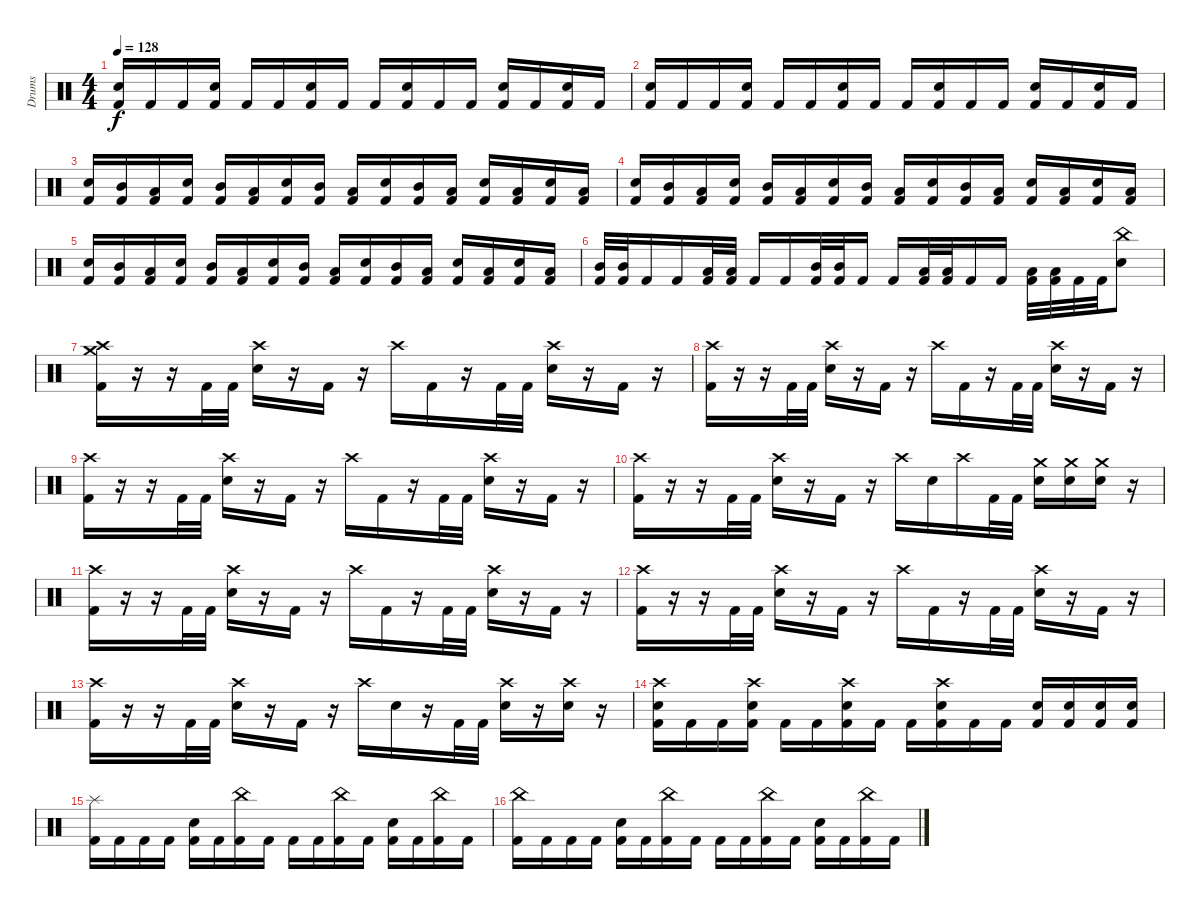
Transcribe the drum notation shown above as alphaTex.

\track ("Drums" "Drums") {instrument percussion}
\staff {score}
\articulation defaults
\ts (4 4)
\tempo 128
\clef neutral
\ks c
("Electric Snare (hit)" "Kick (hit) 2").16{dy f} "Kick (hit) 2".16 "Kick (hit) 2".16 ("Electric Snare (hit)" "Kick (hit) 2").16 "Kick (hit) 2".16 "Kick (hit) 2".16 ("Electric Snare (hit)" "Kick (hit) 2").16 "Kick (hit) 2".16 "Kick (hit) 2".16 ("Electric Snare (hit)" "Kick (hit) 2").16 "Kick (hit) 2".16 "Kick (hit) 2".16 ("Electric Snare (hit)" "Kick (hit) 2").16 "Kick (hit) 2".16 ("Electric Snare (hit)" "Kick (hit) 2").16 "Kick (hit) 2".16 |
("Electric Snare (hit)" "Kick (hit) 2").16 "Kick (hit) 2".16 "Kick (hit) 2".16 ("Electric Snare (hit)" "Kick (hit) 2").16 "Kick (hit) 2".16 "Kick (hit) 2".16 ("Electric Snare (hit)" "Kick (hit) 2").16 "Kick (hit) 2".16 "Kick (hit) 2".16 ("Electric Snare (hit)" "Kick (hit) 2").16 "Kick (hit) 2".16 "Kick (hit) 2".16 ("Electric Snare (hit)" "Kick (hit) 2").16 "Kick (hit) 2".16 ("Electric Snare (hit)" "Kick (hit) 2").16 "Kick (hit) 2".16 |
("Electric Snare (hit)" "Kick (hit) 2").16 ("Mid Tom (hit)" "Kick (hit) 2").16 ("Low Tom (hit)" "Kick (hit) 2").16 ("Electric Snare (hit)" "Kick (hit) 2").16 ("Mid Tom (hit)" "Kick (hit) 2").16 ("Low Tom (hit)" "Kick (hit) 2").16 ("Electric Snare (hit)" "Kick (hit) 2").16 ("Mid Tom (hit)" "Kick (hit) 2").16 ("Low Tom (hit)" "Kick (hit) 2").16 ("Electric Snare (hit)" "Kick (hit) 2").16 ("Mid Tom (hit)" "Kick (hit) 2").16 ("Low Tom (hit)" "Kick (hit) 2").16 ("Electric Snare (hit)" "Kick (hit) 2").16 ("Low Tom (hit)" "Kick (hit) 2").16 ("Electric Snare (hit)" "Kick (hit) 2").16 ("Low Tom (hit)" "Kick (hit) 2").16 |
("Electric Snare (hit)" "Kick (hit) 2").16 ("Mid Tom (hit)" "Kick (hit) 2").16 ("Low Tom (hit)" "Kick (hit) 2").16 ("Electric Snare (hit)" "Kick (hit) 2").16 ("Mid Tom (hit)" "Kick (hit) 2").16 ("Low Tom (hit)" "Kick (hit) 2").16 ("Electric Snare (hit)" "Kick (hit) 2").16 ("Mid Tom (hit)" "Kick (hit) 2").16 ("Low Tom (hit)" "Kick (hit) 2").16 ("Electric Snare (hit)" "Kick (hit) 2").16 ("Mid Tom (hit)" "Kick (hit) 2").16 ("Low Tom (hit)" "Kick (hit) 2").16 ("Electric Snare (hit)" "Kick (hit) 2").16 ("Low Tom (hit)" "Kick (hit) 2").16 ("Electric Snare (hit)" "Kick (hit) 2").16 ("Low Tom (hit)" "Kick (hit) 2").16 |
("Electric Snare (hit)" "Kick (hit) 2").16 ("Mid Tom (hit)" "Kick (hit) 2").16 ("Low Tom (hit)" "Kick (hit) 2").16 ("Electric Snare (hit)" "Kick (hit) 2").16 ("Mid Tom (hit)" "Kick (hit) 2").16 ("Low Tom (hit)" "Kick (hit) 2").16 ("Electric Snare (hit)" "Kick (hit) 2").16 ("Mid Tom (hit)" "Kick (hit) 2").16 ("Low Tom (hit)" "Kick (hit) 2").16 ("Electric Snare (hit)" "Kick (hit) 2").16 ("Mid Tom (hit)" "Kick (hit) 2").16 ("Low Tom (hit)" "Kick (hit) 2").16 ("Electric Snare (hit)" "Kick (hit) 2").16 ("Low Tom (hit)" "Kick (hit) 2").16 ("Electric Snare (hit)" "Kick (hit) 2").16 ("Low Tom (hit)" "Kick (hit) 2").16 |
("Mid Tom (hit)" "Kick (hit) 2").32 ("Mid Tom (hit)" "Kick (hit) 2").32 "Kick (hit) 2".16 "Kick (hit) 2".16 ("Low Tom (hit)" "Kick (hit) 2").32 ("Low Tom (hit)" "Kick (hit) 2").32 "Kick (hit) 2".16 "Kick (hit) 2".16 ("Mid Tom (hit)" "Kick (hit) 2").32 ("Mid Tom (hit)" "Kick (hit) 2").32 "Kick (hit) 2".16 "Kick (hit) 2".16 ("Low Tom (hit)" "Kick (hit) 2").32 ("Low Tom (hit)" "Kick (hit) 2").32 "Kick (hit) 2".16 "Kick (hit) 2".16 ("Low Tom (hit)" "Kick (hit) 2").32 ("Low Tom (hit)" "Kick (hit) 2").32 "Kick (hit) 2".32 "Kick (hit) 2".32 ("China (hit)" "Electric Snare (hit)").8 |
("Crash high (hit)" "Crash medium (hit)" "Kick (hit) 2").16 r.16 r.16 "Kick (hit) 2".32 "Kick (hit) 2".32 ("Crash high (hit)" "Electric Snare (hit)").16 r.16 "Kick (hit) 2".16 r.16 "Crash high (hit)".16 "Kick (hit) 2".16 r.16 "Kick (hit) 2".32 "Kick (hit) 2".32 ("Crash high (hit)" "Electric Snare (hit)").16 r.16 "Kick (hit) 2".16 r.16 |
("Crash high (hit)" "Kick (hit) 2").16 r.16 r.16 "Kick (hit) 2".32 "Kick (hit) 2".32 ("Crash high (hit)" "Electric Snare (hit)").16 r.16 "Kick (hit) 2".16 r.16 "Crash high (hit)".16 "Kick (hit) 2".16 r.16 "Kick (hit) 2".32 "Kick (hit) 2".32 ("Crash high (hit)" "Electric Snare (hit)").16 r.16 "Kick (hit) 2".16 r.16 |
("Crash high (hit)" "Kick (hit) 2").16 r.16 r.16 "Kick (hit) 2".32 "Kick (hit) 2".32 ("Crash high (hit)" "Electric Snare (hit)").16 r.16 "Kick (hit) 2".16 r.16 "Crash high (hit)".16 "Kick (hit) 2".16 r.16 "Kick (hit) 2".32 "Kick (hit) 2".32 ("Crash high (hit)" "Electric Snare (hit)").16 r.16 "Kick (hit) 2".16 r.16 |
("Crash high (hit)" "Kick (hit) 2").16 r.16 r.16 "Kick (hit) 2".32 "Kick (hit) 2".32 ("Crash high (hit)" "Electric Snare (hit)").16 r.16 "Kick (hit) 2".16 r.16 "Crash high (hit)".16 "Electric Snare (hit)".16 "Crash high (hit)".16 "Kick (hit) 2".32 "Kick (hit) 2".32 ("Crash medium (hit)" "Electric Snare (hit)").16 ("Crash medium (hit)" "Electric Snare (hit)").16 ("Crash medium (hit)" "Electric Snare (hit)").16 r.16 |
("Crash high (hit)" "Kick (hit) 2").16 r.16 r.16 "Kick (hit) 2".32 "Kick (hit) 2".32 ("Crash high (hit)" "Electric Snare (hit)").16 r.16 "Kick (hit) 2".16 r.16 "Crash high (hit)".16 "Kick (hit) 2".16 r.16 "Kick (hit) 2".32 "Kick (hit) 2".32 ("Crash high (hit)" "Electric Snare (hit)").16 r.16 "Kick (hit) 2".16 r.16 |
("Crash high (hit)" "Kick (hit) 2").16 r.16 r.16 "Kick (hit) 2".32 "Kick (hit) 2".32 ("Crash high (hit)" "Electric Snare (hit)").16 r.16 "Kick (hit) 2".16 r.16 "Crash high (hit)".16 "Kick (hit) 2".16 r.16 "Kick (hit) 2".32 "Kick (hit) 2".32 ("Crash high (hit)" "Electric Snare (hit)").16 r.16 "Kick (hit) 2".16 r.16 |
("Crash high (hit)" "Kick (hit) 2").16 r.16 r.16 "Kick (hit) 2".32 "Kick (hit) 2".32 ("Crash high (hit)" "Electric Snare (hit)").16 r.16 "Kick (hit) 2".16 r.16 "Crash high (hit)".16 "Electric Snare (hit)".16 r.16 "Kick (hit) 2".32 "Kick (hit) 2".32 ("Crash high (hit)" "Electric Snare (hit)").16 r.16 ("Crash high (hit)" "Electric Snare (hit)").16 r.16 |
("Crash high (hit)" "Electric Snare (hit)" "Kick (hit) 2").16 "Kick (hit) 2".16 "Kick (hit) 2".16 ("Crash high (hit)" "Electric Snare (hit)" "Kick (hit) 2").16 "Kick (hit) 2".16 "Kick (hit) 2".16 ("Crash high (hit)" "Electric Snare (hit)" "Kick (hit) 2").16 "Kick (hit) 2".16 "Kick (hit) 2".16 ("Crash high (hit)" "Electric Snare (hit)" "Kick (hit) 2").16 "Kick (hit) 2".16 "Kick (hit) 2".16 ("Electric Snare (hit)" "Kick (hit) 2").16 ("Electric Snare (hit)" "Kick (hit) 2").16 ("Electric Snare (hit)" "Kick (hit) 2").16 ("Electric Snare (hit)" "Kick (hit) 2").16 |
("Splash (hit)" "Kick (hit) 2").16 "Kick (hit) 2".16 "Kick (hit) 2".16 "Kick (hit) 2".16 ("Electric Snare (hit)" "Kick (hit) 2").16 "Kick (hit) 2".16 ("China (hit)" "Kick (hit) 2").16 "Kick (hit) 2".16 "Kick (hit) 2".16 "Kick (hit) 2".16 ("China (hit)" "Kick (hit) 2").16 "Kick (hit) 2".16 ("Electric Snare (hit)" "Kick (hit) 2").16 "Kick (hit) 2".16 ("China (hit)" "Kick (hit) 2").16 "Kick (hit) 2".16 |
("China (hit)" "Kick (hit) 2").16 "Kick (hit) 2".16 "Kick (hit) 2".16 "Kick (hit) 2".16 ("Electric Snare (hit)" "Kick (hit) 2").16 "Kick (hit) 2".16 ("China (hit)" "Kick (hit) 2").16 "Kick (hit) 2".16 "Kick (hit) 2".16 "Kick (hit) 2".16 ("China (hit)" "Kick (hit) 2").16 "Kick (hit) 2".16 ("Electric Snare (hit)" "Kick (hit) 2").16 "Kick (hit) 2".16 ("China (hit)" "Kick (hit) 2").16 "Kick (hit) 2".16
